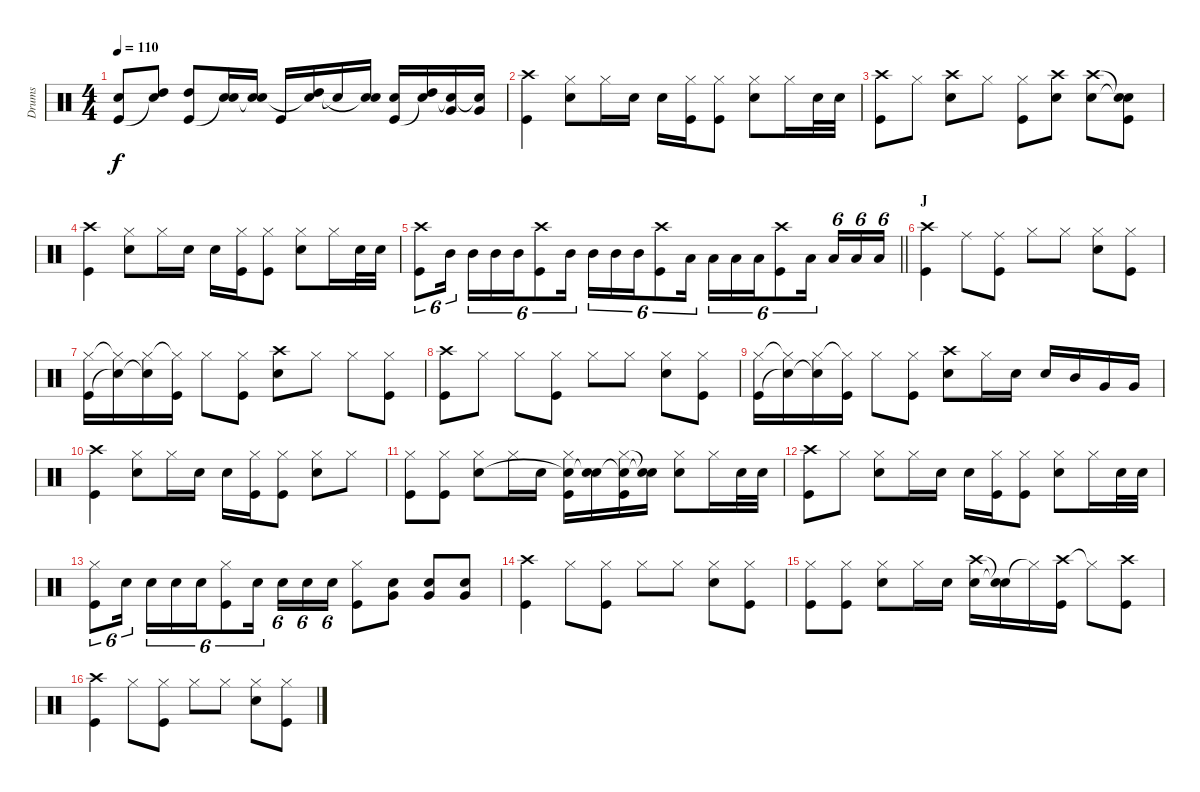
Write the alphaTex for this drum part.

\track ("Drums" "Drums") {instrument percussion}
\staff {score}
\articulation defaults
\ts (4 4)
\tempo 110
\clef neutral
\ks c
("Snare (hit) 2" "Kick (hit)").8{dy f} ("High Tom (hit)" "Snare (hit)"{t}).8 ("High Tom (hit)" "Kick (hit)").8 ("Snare (hit) 2" "Snare (hit)"{t}).16 ("Snare (hit) 2" "Snare (hit)"{t}).16 "Kick (hit)".16 ("High Tom (hit)" "Snare (hit)"{t}).16 "Snare (hit)"{t}.16 ("Snare (hit) 2" "Snare (hit)"{t}).16 ("Snare (hit) 2" "Kick (hit)").16 ("High Tom (hit)" "Snare (hit)"{t}).16 ("Very Low Tom (hit)" "Snare (hit)"{t}).16 ("Very Low Tom (hit)" "Snare (hit)"{t}).16 |
("Crash high (hit)" "Kick (hit)").4 ("Hi-Hat (closed)" "Snare (hit) 2").8 "Hi-Hat (closed)".16 "Snare (hit) 2".16 "Snare (hit) 2".16 ("Hi-Hat (closed)" "Kick (hit)").16 ("Hi-Hat (closed)" "Kick (hit)").8 ("Hi-Hat (closed)" "Snare (hit) 2").8 "Hi-Hat (closed)".16 "Snare (hit) 2".32 "Snare (hit) 2".32 |
("Crash high (hit)" "Kick (hit)").8 "Hi-Hat (closed)".8 ("Crash high (hit)" "Snare (hit) 2").8 "Hi-Hat (closed)".8 ("Hi-Hat (closed)" "Kick (hit)").8 ("Crash high (hit)" "Snare (hit) 2").8 ("Crash high (hit)" "Snare (hit) 2").8 ("Snare (hit)"{t} "Snare (hit) 2"{t} "Kick (hit)").8 |
("Crash high (hit)" "Kick (hit)").4 ("Hi-Hat (closed)" "Snare (hit) 2").8 "Hi-Hat (closed)".16 "Snare (hit) 2".16 "Snare (hit) 2".16 ("Hi-Hat (closed)" "Kick (hit)").16 ("Hi-Hat (closed)" "Kick (hit)").8 ("Hi-Hat (closed)" "Snare (hit) 2").8 "Hi-Hat (closed)".16 "Snare (hit) 2".32 "Snare (hit) 2".32 |
\barLineRight lightlight
("Crash high (hit)" "Kick (hit)").8{tu (6 4)} "Mid Tom (hit)".16{tu (6 4) beam splitsecondary} "Mid Tom (hit)".16{tu (6 4)} "Mid Tom (hit)".16{tu (6 4)} "Mid Tom (hit)".16{tu (6 4)} ("Crash high (hit)" "Kick (hit)").8{tu (6 4)} "Mid Tom (hit)".16{tu (6 4) beam splitsecondary} "Mid Tom (hit)".16{tu (6 4)} "Mid Tom (hit)".16{tu (6 4)} "Mid Tom (hit)".16{tu (6 4)} ("Crash high (hit)" "Kick (hit)").8{tu (6 4)} "Low Tom (hit)".16{tu (6 4) beam splitsecondary} "Low Tom (hit)".16{tu (6 4)} "Low Tom (hit)".16{tu (6 4)} "Low Tom (hit)".16{tu (6 4)} ("Crash high (hit)" "Kick (hit)").8{tu (6 4)} "Low Tom (hit)".16{tu (6 4) beam splitsecondary} "Low Tom (hit)".16{tu (6 4)} "Low Tom (hit)".16{tu (6 4)} "Low Tom (hit)".16{tu (6 4)} |
\section ("" "J")
("Crash high (hit)" "Kick (hit)").4 "Ride (middle)".8 ("Ride (middle)" "Kick (hit)").8 "Hi-Hat (closed)".8 "Hi-Hat (closed)".8 ("Hi-Hat (closed)" "Snare (hit) 2").8 ("Hi-Hat (closed)" "Kick (hit)").8 |
("Hi-Hat (closed)" "Kick (hit)").16 ("Hi-Hat (closed)"{t} "Snare (hit)"{t}).16 ("Hi-Hat (closed)" "Snare (hit)"{t}).16 ("Hi-Hat (closed)"{t} "Kick (hit)").16 "Hi-Hat (closed)".8 ("Hi-Hat (closed)" "Kick (hit)").8 ("Crash high (hit)" "Snare (hit) 2").8 "Hi-Hat (closed)".8 "Hi-Hat (closed)".8 ("Hi-Hat (closed)" "Kick (hit)").8 |
("Crash high (hit)" "Kick (hit)").8 "Hi-Hat (closed)".8 "Hi-Hat (closed)".8 ("Hi-Hat (closed)" "Kick (hit)").8 "Hi-Hat (closed)".8 "Hi-Hat (closed)".8 ("Hi-Hat (closed)" "Snare (hit) 2").8 ("Hi-Hat (closed)" "Kick (hit)").8 |
("Hi-Hat (closed)" "Kick (hit)").16 ("Hi-Hat (closed)"{t} "Snare (hit)"{t}).16 ("Hi-Hat (closed)" "Snare (hit)"{t}).16 ("Hi-Hat (closed)"{t} "Kick (hit)").16 "Hi-Hat (closed)".8 ("Hi-Hat (closed)" "Kick (hit)").8 ("Crash high (hit)" "Snare (hit) 2").8 "Hi-Hat (closed)".16 "Snare (hit) 2".16 "Snare (hit) 2".16 "Mid Tom (hit)".16 "Very Low Tom (hit)".16 "Very Low Tom (hit)".16 |
("Crash high (hit)" "Kick (hit)").4 ("Hi-Hat (closed)" "Snare (hit) 2").8 "Hi-Hat (closed)".16 "Snare (hit) 2".16 "Snare (hit) 2".16 ("Hi-Hat (closed)" "Kick (hit)").16 ("Hi-Hat (closed)" "Kick (hit)").8 ("Hi-Hat (closed)" "Snare (hit) 2").8 "Hi-Hat (closed)".8 |
("Hi-Hat (closed)" "Kick (hit)").8 ("Hi-Hat (closed)" "Kick (hit)").8 ("Hi-Hat (closed)" "Snare (hit) 2").8 "Hi-Hat (closed)".16 "Snare (hit) 2".16 ("Hi-Hat (closed)" "Snare (hit)"{t} "Kick (hit)").16 ("Snare (hit) 2" "Snare (hit)"{t}).16 ("Hi-Hat (closed)" "Snare (hit)"{t} "Kick (hit)").16 ("Snare (hit)"{t} "Snare (hit)"{t}).16 ("Hi-Hat (closed)" "Snare (hit) 2").8 "Hi-Hat (closed)".16 "Snare (hit) 2".32 "Snare (hit) 2".32 |
("Crash high (hit)" "Kick (hit)").8 "Hi-Hat (closed)".8 ("Hi-Hat (closed)" "Snare (hit) 2").8 "Hi-Hat (closed)".16 "Snare (hit) 2".16 "Snare (hit) 2".16 ("Hi-Hat (closed)" "Kick (hit)").16 ("Hi-Hat (closed)" "Kick (hit)").8 ("Hi-Hat (closed)" "Snare (hit) 2").8 "Hi-Hat (closed)".16 "Snare (hit) 2".32 "Snare (hit) 2".32 |
("Hi-Hat (closed)" "Kick (hit)").8{tu (6 4)} "Snare (hit) 2".16{tu (6 4) beam splitsecondary} "Snare (hit) 2".16{tu (6 4)} "Snare (hit) 2".16{tu (6 4)} "Snare (hit) 2".16{tu (6 4)} ("Hi-Hat (closed)" "Kick (hit)").8{tu (6 4)} "Snare (hit) 2".16{tu (6 4) beam splitsecondary} "Snare (hit) 2".16{tu (6 4)} "Snare (hit) 2".16{tu (6 4)} "Snare (hit) 2".16{tu (6 4)} ("Hi-Hat (closed)" "Kick (hit)").8 ("Snare (hit) 2" "Very Low Tom (hit)").8 ("Snare (hit) 2" "Very Low Tom (hit)").8 ("Snare (hit) 2" "Very Low Tom (hit)").8 |
("Crash high (hit)" "Kick (hit)").4 "Hi-Hat (closed)".8 ("Hi-Hat (closed)" "Kick (hit)").8 "Hi-Hat (closed)".8 "Hi-Hat (closed)".8 ("Hi-Hat (closed)" "Snare (hit) 2").8 ("Hi-Hat (closed)" "Kick (hit)").8 |
("Hi-Hat (closed)" "Kick (hit)").8 ("Hi-Hat (closed)" "Kick (hit)").8 ("Hi-Hat (closed)" "Snare (hit) 2").8 "Hi-Hat (closed)".16 "Snare (hit) 2".16 ("Crash high (hit)" "Snare (hit) 2").16 ("Snare (hit)"{t} "Snare (hit) 2"{t}).16 "Hi-Hat (closed)"{t}.16 ("Crash high (hit)" "Kick (hit)").16 "Hi-Hat (closed)"{t}.8 ("Crash high (hit)" "Kick (hit)").8 |
("Crash high (hit)" "Kick (hit)").4 "Hi-Hat (closed)".8 ("Hi-Hat (closed)" "Kick (hit)").8 "Hi-Hat (closed)".8 "Hi-Hat (closed)".8 ("Hi-Hat (closed)" "Snare (hit) 2").8 ("Hi-Hat (closed)" "Kick (hit)").8
